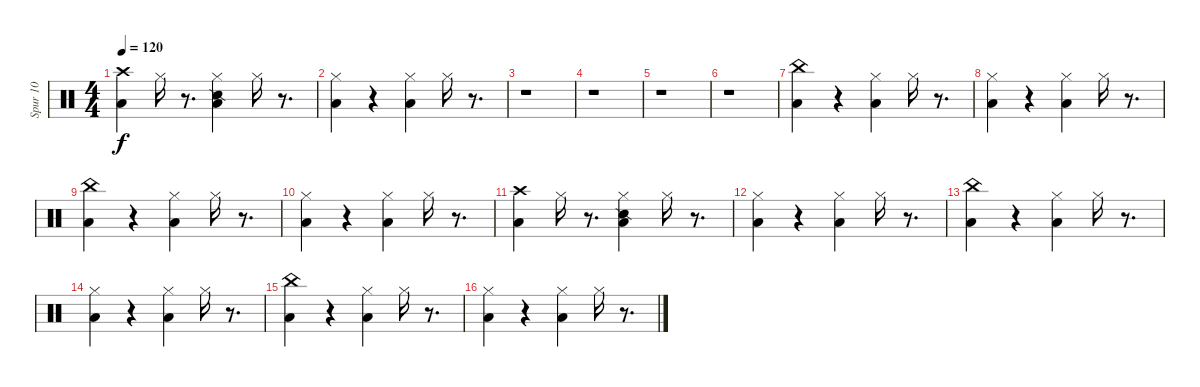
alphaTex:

\track ("Spur 10" "Spur 10") {instrument percussion}
\staff {score}
\articulation defaults
\ts (4 4)
\tempo 120
\clef neutral
\ks c
("Low Floor Tom (hit)" "Crash high (hit)").4{dy f} "Hi-Hat (closed)".16 r.8{d} ("Snare (side stick) 2" "Hi-Hat (closed)" "Low Tom (hit)").4 "Hi-Hat (closed)".16 r.8{d} |
("Hi-Hat (closed)" "Low Floor Tom (hit)").4 r.4 ("Hi-Hat (closed)" "Low Tom (hit)").4 "Hi-Hat (closed)".16 r.8{d} |
r.1 |
r.1 |
r.1 |
r.1 |
("Low Floor Tom (hit)" "China (hit)").4 r.4 ("Hi-Hat (closed)" "Low Tom (hit)").4 "Hi-Hat (closed)".16 r.8{d} |
("Hi-Hat (closed)" "Low Floor Tom (hit)").4 r.4 ("Hi-Hat (closed)" "Low Tom (hit)").4 "Hi-Hat (closed)".16 r.8{d} |
("Low Floor Tom (hit)" "China (hit)").4 r.4 ("Hi-Hat (closed)" "Low Tom (hit)").4 "Hi-Hat (closed)".16 r.8{d} |
("Hi-Hat (closed)" "Low Floor Tom (hit)").4 r.4 ("Hi-Hat (closed)" "Low Tom (hit)").4 "Hi-Hat (closed)".16 r.8{d} |
("Low Floor Tom (hit)" "Crash high (hit)").4 "Hi-Hat (closed)".16 r.8{d} ("Snare (side stick) 2" "Hi-Hat (closed)" "Low Tom (hit)").4 "Hi-Hat (closed)".16 r.8{d} |
("Hi-Hat (closed)" "Low Floor Tom (hit)").4 r.4 ("Hi-Hat (closed)" "Low Tom (hit)").4 "Hi-Hat (closed)".16 r.8{d} |
("Low Floor Tom (hit)" "China (hit)").4 r.4 ("Hi-Hat (closed)" "Low Tom (hit)").4 "Hi-Hat (closed)".16 r.8{d} |
("Hi-Hat (closed)" "Low Floor Tom (hit)").4 r.4 ("Hi-Hat (closed)" "Low Tom (hit)").4 "Hi-Hat (closed)".16 r.8{d} |
("Low Floor Tom (hit)" "China (hit)").4 r.4 ("Hi-Hat (closed)" "Low Tom (hit)").4 "Hi-Hat (closed)".16 r.8{d} |
("Hi-Hat (closed)" "Low Floor Tom (hit)").4 r.4 ("Hi-Hat (closed)" "Low Tom (hit)").4 "Hi-Hat (closed)".16 r.8{d}
